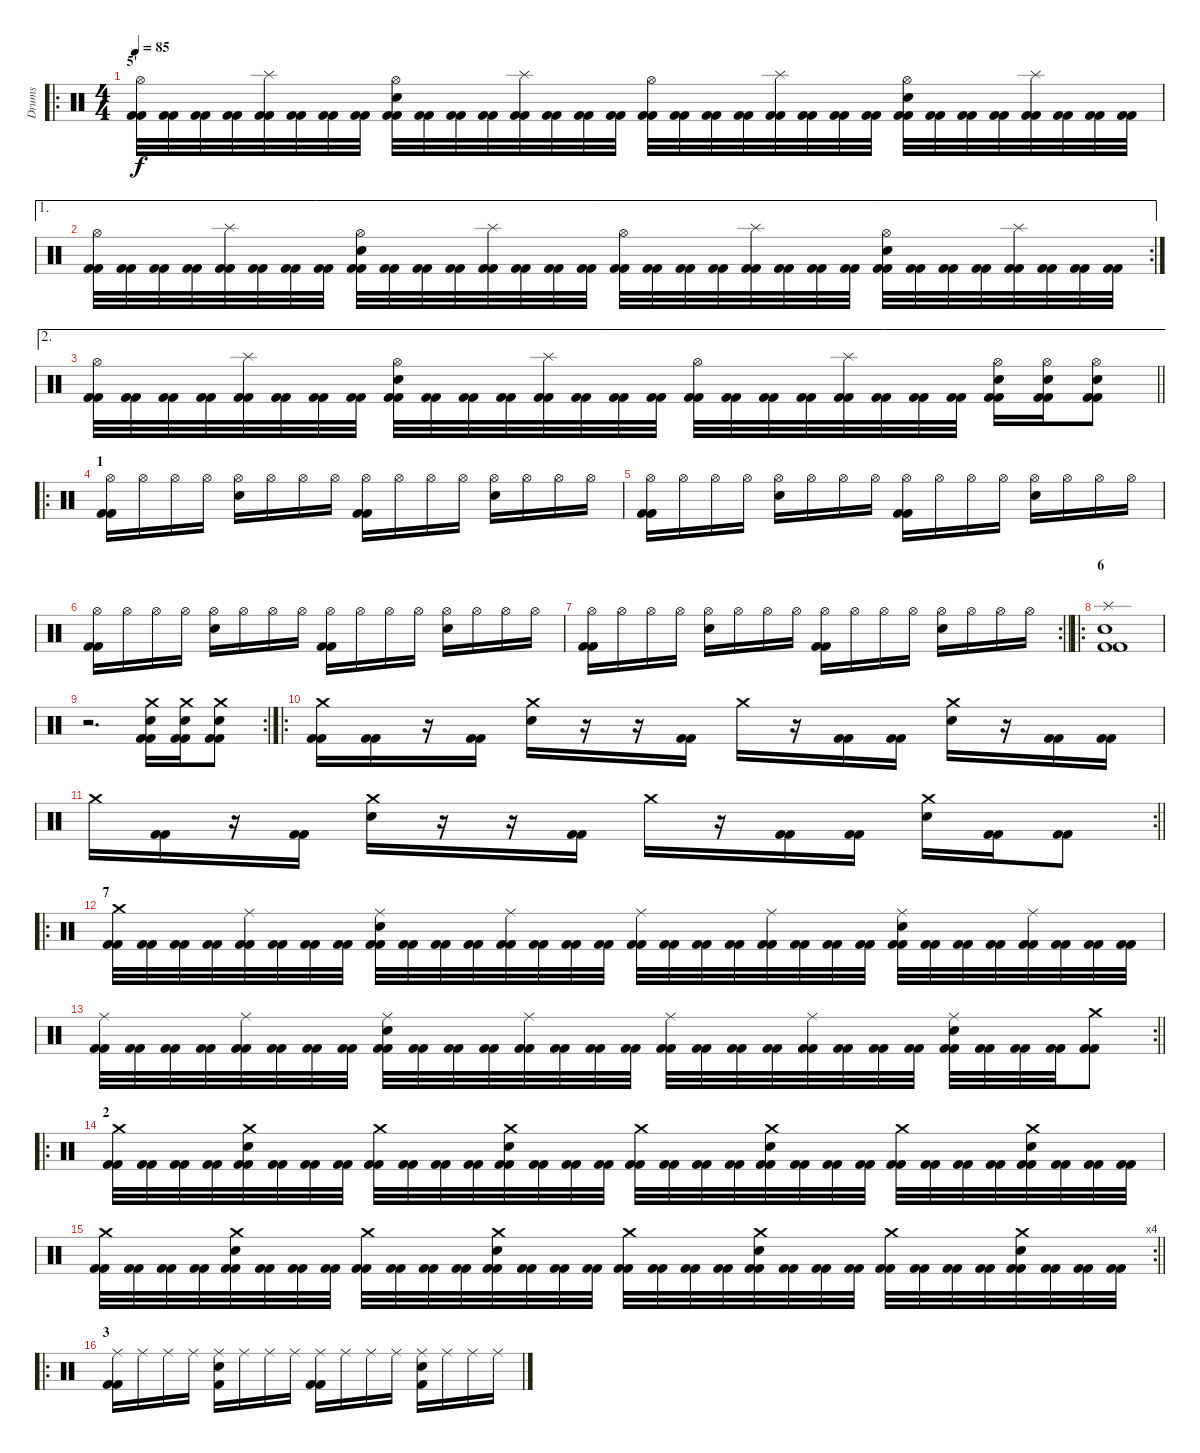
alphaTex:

\track ("Drums" "Drums") {instrument percussion}
\staff {score}
\articulation defaults
\ro
\ts (4 4)
\section ("" "5'")
\tempo 85
\clef neutral
\ks c
("Hi-Hat (open)" "Kick (hit) 2" "Kick (hit) 2").32{dy f} ("Kick (hit) 2" "Kick (hit) 2").32 ("Kick (hit) 2" "Kick (hit) 2").32 ("Kick (hit) 2" "Kick (hit) 2").32 ("Splash (hit)" "Kick (hit) 2" "Kick (hit) 2").32 ("Kick (hit) 2" "Kick (hit) 2").32 ("Kick (hit) 2" "Kick (hit) 2").32 ("Kick (hit) 2" "Kick (hit) 2").32 ("Snare (hit) 2" "Hi-Hat (open)" "Kick (hit) 2" "Kick (hit) 2").32 ("Kick (hit) 2" "Kick (hit) 2").32 ("Kick (hit) 2" "Kick (hit) 2").32 ("Kick (hit) 2" "Kick (hit) 2").32 ("Splash (hit)" "Kick (hit) 2" "Kick (hit) 2").32 ("Kick (hit) 2" "Kick (hit) 2").32 ("Kick (hit) 2" "Kick (hit) 2").32 ("Kick (hit) 2" "Kick (hit) 2").32 ("Hi-Hat (open)" "Kick (hit) 2" "Kick (hit) 2").32 ("Kick (hit) 2" "Kick (hit) 2").32 ("Kick (hit) 2" "Kick (hit) 2").32 ("Kick (hit) 2" "Kick (hit) 2").32 ("Splash (hit)" "Kick (hit) 2" "Kick (hit) 2").32 ("Kick (hit) 2" "Kick (hit) 2").32 ("Kick (hit) 2" "Kick (hit) 2").32 ("Kick (hit) 2" "Kick (hit) 2").32 ("Snare (hit) 2" "Hi-Hat (open)" "Kick (hit) 2" "Kick (hit) 2").32 ("Kick (hit) 2" "Kick (hit) 2").32 ("Kick (hit) 2" "Kick (hit) 2").32 ("Kick (hit) 2" "Kick (hit) 2").32 ("Splash (hit)" "Kick (hit) 2" "Kick (hit) 2").32 ("Kick (hit) 2" "Kick (hit) 2").32 ("Kick (hit) 2" "Kick (hit) 2").32 ("Kick (hit) 2" "Kick (hit) 2").32 |
\ae 1
\rc 2
("Hi-Hat (open)" "Kick (hit) 2" "Kick (hit) 2").32 ("Kick (hit) 2" "Kick (hit) 2").32 ("Kick (hit) 2" "Kick (hit) 2").32 ("Kick (hit) 2" "Kick (hit) 2").32 ("Splash (hit)" "Kick (hit) 2" "Kick (hit) 2").32 ("Kick (hit) 2" "Kick (hit) 2").32 ("Kick (hit) 2" "Kick (hit) 2").32 ("Kick (hit) 2" "Kick (hit) 2").32 ("Snare (hit) 2" "Hi-Hat (open)" "Kick (hit) 2" "Kick (hit) 2").32 ("Kick (hit) 2" "Kick (hit) 2").32 ("Kick (hit) 2" "Kick (hit) 2").32 ("Kick (hit) 2" "Kick (hit) 2").32 ("Splash (hit)" "Kick (hit) 2" "Kick (hit) 2").32 ("Kick (hit) 2" "Kick (hit) 2").32 ("Kick (hit) 2" "Kick (hit) 2").32 ("Kick (hit) 2" "Kick (hit) 2").32 ("Hi-Hat (open)" "Kick (hit) 2" "Kick (hit) 2").32 ("Kick (hit) 2" "Kick (hit) 2").32 ("Kick (hit) 2" "Kick (hit) 2").32 ("Kick (hit) 2" "Kick (hit) 2").32 ("Splash (hit)" "Kick (hit) 2" "Kick (hit) 2").32 ("Kick (hit) 2" "Kick (hit) 2").32 ("Kick (hit) 2" "Kick (hit) 2").32 ("Kick (hit) 2" "Kick (hit) 2").32 ("Snare (hit) 2" "Hi-Hat (open)" "Kick (hit) 2" "Kick (hit) 2").32 ("Kick (hit) 2" "Kick (hit) 2").32 ("Kick (hit) 2" "Kick (hit) 2").32 ("Kick (hit) 2" "Kick (hit) 2").32 ("Splash (hit)" "Kick (hit) 2" "Kick (hit) 2").32 ("Kick (hit) 2" "Kick (hit) 2").32 ("Kick (hit) 2" "Kick (hit) 2").32 ("Kick (hit) 2" "Kick (hit) 2").32 |
\ae 2
\barLineRight lightlight
("Hi-Hat (open)" "Kick (hit) 2" "Kick (hit) 2").32 ("Kick (hit) 2" "Kick (hit) 2").32 ("Kick (hit) 2" "Kick (hit) 2").32 ("Kick (hit) 2" "Kick (hit) 2").32 ("Splash (hit)" "Kick (hit) 2" "Kick (hit) 2").32 ("Kick (hit) 2" "Kick (hit) 2").32 ("Kick (hit) 2" "Kick (hit) 2").32 ("Kick (hit) 2" "Kick (hit) 2").32 ("Snare (hit) 2" "Hi-Hat (open)" "Kick (hit) 2" "Kick (hit) 2").32 ("Kick (hit) 2" "Kick (hit) 2").32 ("Kick (hit) 2" "Kick (hit) 2").32 ("Kick (hit) 2" "Kick (hit) 2").32 ("Splash (hit)" "Kick (hit) 2" "Kick (hit) 2").32 ("Kick (hit) 2" "Kick (hit) 2").32 ("Kick (hit) 2" "Kick (hit) 2").32 ("Kick (hit) 2" "Kick (hit) 2").32 ("Hi-Hat (open)" "Kick (hit) 2" "Kick (hit) 2").32 ("Kick (hit) 2" "Kick (hit) 2").32 ("Kick (hit) 2" "Kick (hit) 2").32 ("Kick (hit) 2" "Kick (hit) 2").32 ("Splash (hit)" "Kick (hit) 2" "Kick (hit) 2").32 ("Kick (hit) 2" "Kick (hit) 2").32 ("Kick (hit) 2" "Kick (hit) 2").32 ("Kick (hit) 2" "Kick (hit) 2").32 ("Snare (hit) 2" "Hi-Hat (open)" "Kick (hit) 2" "Kick (hit) 2").16 ("Snare (hit) 2" "Hi-Hat (open)" "Kick (hit) 2" "Kick (hit) 2").16 ("Snare (hit) 2" "Hi-Hat (open)" "Kick (hit) 2" "Kick (hit) 2").8 |
\ro
\section ("" "1")
("Kick (hit) 2" "Kick (hit) 2" "Hi-Hat (open)").16 "Hi-Hat (open)".16 "Hi-Hat (open)".16 "Hi-Hat (open)".16 ("Snare (hit) 2" "Hi-Hat (open)").16 "Hi-Hat (open)".16 "Hi-Hat (open)".16 "Hi-Hat (open)".16 ("Kick (hit) 2" "Kick (hit) 2" "Hi-Hat (open)").16 "Hi-Hat (open)".16 "Hi-Hat (open)".16 "Hi-Hat (open)".16 ("Snare (hit) 2" "Hi-Hat (open)").16 "Hi-Hat (open)".16 "Hi-Hat (open)".16 "Hi-Hat (open)".16 |
("Kick (hit) 2" "Kick (hit) 2" "Hi-Hat (open)").16 "Hi-Hat (open)".16 "Hi-Hat (open)".16 "Hi-Hat (open)".16 ("Snare (hit) 2" "Hi-Hat (open)").16 "Hi-Hat (open)".16 "Hi-Hat (open)".16 "Hi-Hat (open)".16 ("Kick (hit) 2" "Kick (hit) 2" "Hi-Hat (open)").16 "Hi-Hat (open)".16 "Hi-Hat (open)".16 "Hi-Hat (open)".16 ("Snare (hit) 2" "Hi-Hat (open)").16 "Hi-Hat (open)".16 "Hi-Hat (open)".16 "Hi-Hat (open)".16 |
("Kick (hit) 2" "Kick (hit) 2" "Hi-Hat (open)").16 "Hi-Hat (open)".16 "Hi-Hat (open)".16 "Hi-Hat (open)".16 ("Snare (hit) 2" "Hi-Hat (open)").16 "Hi-Hat (open)".16 "Hi-Hat (open)".16 "Hi-Hat (open)".16 ("Kick (hit) 2" "Kick (hit) 2" "Hi-Hat (open)").16 "Hi-Hat (open)".16 "Hi-Hat (open)".16 "Hi-Hat (open)".16 ("Snare (hit) 2" "Hi-Hat (open)").16 "Hi-Hat (open)".16 "Hi-Hat (open)".16 "Hi-Hat (open)".16 |
\rc 2
\barLineRight lightlight
("Kick (hit) 2" "Kick (hit) 2" "Hi-Hat (open)").16 "Hi-Hat (open)".16 "Hi-Hat (open)".16 "Hi-Hat (open)".16 ("Snare (hit) 2" "Hi-Hat (open)").16 "Hi-Hat (open)".16 "Hi-Hat (open)".16 "Hi-Hat (open)".16 ("Kick (hit) 2" "Kick (hit) 2" "Hi-Hat (open)").16 "Hi-Hat (open)".16 "Hi-Hat (open)".16 "Hi-Hat (open)".16 ("Snare (hit) 2" "Hi-Hat (open)").16 "Hi-Hat (open)".16 "Hi-Hat (open)".16 "Hi-Hat (open)".16 |
\ro
\section ("" "6")
("Splash (hit)" "Snare (hit) 2" "Kick (hit) 2" "Kick (hit) 2").1 |
\rc 2
r.2{d} ("Crash medium (hit)" "Snare (hit) 2" "Kick (hit) 2" "Kick (hit) 2").16 ("Crash medium (hit)" "Snare (hit) 2" "Kick (hit) 2" "Kick (hit) 2").16 ("Crash medium (hit)" "Snare (hit) 2" "Kick (hit) 2" "Kick (hit) 2").8 |
\ro
("Crash medium (hit)" "Kick (hit) 2" "Kick (hit) 2").16 ("Kick (hit) 2" "Kick (hit) 2").16 r.16 ("Kick (hit) 2" "Kick (hit) 2").16 ("Crash medium (hit)" "Snare (hit) 2").16 r.16 r.16 ("Kick (hit) 2" "Kick (hit) 2").16 "Crash medium (hit)".16 r.16 ("Kick (hit) 2" "Kick (hit) 2").16 ("Kick (hit) 2" "Kick (hit) 2").16 ("Crash medium (hit)" "Snare (hit) 2").16 r.16 ("Kick (hit) 2" "Kick (hit) 2").16 ("Kick (hit) 2" "Kick (hit) 2").16 |
\rc 2
\barLineRight lightlight "Crash medium (hit)".16
("Kick (hit) 2" "Kick (hit) 2").16 r.16 ("Kick (hit) 2" "Kick (hit) 2").16 ("Crash medium (hit)" "Snare (hit) 2").16 r.16 r.16 ("Kick (hit) 2" "Kick (hit) 2").16 "Crash medium (hit)".16 r.16 ("Kick (hit) 2" "Kick (hit) 2").16 ("Kick (hit) 2" "Kick (hit) 2").16 ("Crash medium (hit)" "Snare (hit) 2").16 ("Kick (hit) 2" "Kick (hit) 2").16 ("Kick (hit) 2" "Kick (hit) 2").8 |
\ro
\section ("" "7")
("Crash medium (hit)" "Kick (hit) 2" "Kick (hit) 2").32 ("Kick (hit) 2" "Kick (hit) 2").32 ("Kick (hit) 2" "Kick (hit) 2").32 ("Kick (hit) 2" "Kick (hit) 2").32 ("Ride (middle)" "Kick (hit) 2" "Kick (hit) 2").32 ("Kick (hit) 2" "Kick (hit) 2").32 ("Kick (hit) 2" "Kick (hit) 2").32 ("Kick (hit) 2" "Kick (hit) 2").32 ("Ride (middle)" "Snare (hit) 2" "Kick (hit) 2" "Kick (hit) 2").32 ("Kick (hit) 2" "Kick (hit) 2").32 ("Kick (hit) 2" "Kick (hit) 2").32 ("Kick (hit) 2" "Kick (hit) 2").32 ("Ride (middle)" "Kick (hit) 2" "Kick (hit) 2").32 ("Kick (hit) 2" "Kick (hit) 2").32 ("Kick (hit) 2" "Kick (hit) 2").32 ("Kick (hit) 2" "Kick (hit) 2").32 ("Ride (middle)" "Kick (hit) 2" "Kick (hit) 2").32 ("Kick (hit) 2" "Kick (hit) 2").32 ("Kick (hit) 2" "Kick (hit) 2").32 ("Kick (hit) 2" "Kick (hit) 2").32 ("Ride (middle)" "Kick (hit) 2" "Kick (hit) 2").32 ("Kick (hit) 2" "Kick (hit) 2").32 ("Kick (hit) 2" "Kick (hit) 2").32 ("Kick (hit) 2" "Kick (hit) 2").32 ("Ride (middle)" "Snare (hit) 2" "Kick (hit) 2" "Kick (hit) 2").32 ("Kick (hit) 2" "Kick (hit) 2").32 ("Kick (hit) 2" "Kick (hit) 2").32 ("Kick (hit) 2" "Kick (hit) 2").32 ("Ride (middle)" "Kick (hit) 2" "Kick (hit) 2").32 ("Kick (hit) 2" "Kick (hit) 2").32 ("Kick (hit) 2" "Kick (hit) 2").32 ("Kick (hit) 2" "Kick (hit) 2").32 |
\rc 2
\barLineRight lightlight
("Ride (middle)" "Kick (hit) 2" "Kick (hit) 2").32 ("Kick (hit) 2" "Kick (hit) 2").32 ("Kick (hit) 2" "Kick (hit) 2").32 ("Kick (hit) 2" "Kick (hit) 2").32 ("Ride (middle)" "Kick (hit) 2" "Kick (hit) 2").32 ("Kick (hit) 2" "Kick (hit) 2").32 ("Kick (hit) 2" "Kick (hit) 2").32 ("Kick (hit) 2" "Kick (hit) 2").32 ("Ride (middle)" "Snare (hit) 2" "Kick (hit) 2" "Kick (hit) 2").32 ("Kick (hit) 2" "Kick (hit) 2").32 ("Kick (hit) 2" "Kick (hit) 2").32 ("Kick (hit) 2" "Kick (hit) 2").32 ("Ride (middle)" "Kick (hit) 2" "Kick (hit) 2").32 ("Kick (hit) 2" "Kick (hit) 2").32 ("Kick (hit) 2" "Kick (hit) 2").32 ("Kick (hit) 2" "Kick (hit) 2").32 ("Ride (middle)" "Kick (hit) 2" "Kick (hit) 2").32 ("Kick (hit) 2" "Kick (hit) 2").32 ("Kick (hit) 2" "Kick (hit) 2").32 ("Kick (hit) 2" "Kick (hit) 2").32 ("Ride (middle)" "Kick (hit) 2" "Kick (hit) 2").32 ("Kick (hit) 2" "Kick (hit) 2").32 ("Kick (hit) 2" "Kick (hit) 2").32 ("Kick (hit) 2" "Kick (hit) 2").32 ("Ride (middle)" "Snare (hit) 2" "Kick (hit) 2" "Kick (hit) 2").32 ("Kick (hit) 2" "Kick (hit) 2").32 ("Kick (hit) 2" "Kick (hit) 2").32 ("Kick (hit) 2" "Kick (hit) 2").32 ("Crash medium (hit)" "Kick (hit) 2" "Kick (hit) 2").8 |
\ro
\section ("" "2")
("Crash medium (hit)" "Kick (hit) 2" "Kick (hit) 2").32 ("Kick (hit) 2" "Kick (hit) 2").32 ("Kick (hit) 2" "Kick (hit) 2").32 ("Kick (hit) 2" "Kick (hit) 2").32 ("Crash medium (hit)" "Snare (hit) 2" "Kick (hit) 2" "Kick (hit) 2").32 ("Kick (hit) 2" "Kick (hit) 2").32 ("Kick (hit) 2" "Kick (hit) 2").32 ("Kick (hit) 2" "Kick (hit) 2").32 ("Crash medium (hit)" "Kick (hit) 2" "Kick (hit) 2").32 ("Kick (hit) 2" "Kick (hit) 2").32 ("Kick (hit) 2" "Kick (hit) 2").32 ("Kick (hit) 2" "Kick (hit) 2").32 ("Crash medium (hit)" "Snare (hit) 2" "Kick (hit) 2" "Kick (hit) 2").32 ("Kick (hit) 2" "Kick (hit) 2").32 ("Kick (hit) 2" "Kick (hit) 2").32 ("Kick (hit) 2" "Kick (hit) 2").32 ("Crash medium (hit)" "Kick (hit) 2" "Kick (hit) 2").32 ("Kick (hit) 2" "Kick (hit) 2").32 ("Kick (hit) 2" "Kick (hit) 2").32 ("Kick (hit) 2" "Kick (hit) 2").32 ("Crash medium (hit)" "Snare (hit) 2" "Kick (hit) 2" "Kick (hit) 2").32 ("Kick (hit) 2" "Kick (hit) 2").32 ("Kick (hit) 2" "Kick (hit) 2").32 ("Kick (hit) 2" "Kick (hit) 2").32 ("Crash medium (hit)" "Kick (hit) 2" "Kick (hit) 2").32 ("Kick (hit) 2" "Kick (hit) 2").32 ("Kick (hit) 2" "Kick (hit) 2").32 ("Kick (hit) 2" "Kick (hit) 2").32 ("Crash medium (hit)" "Snare (hit) 2" "Kick (hit) 2" "Kick (hit) 2").32 ("Kick (hit) 2" "Kick (hit) 2").32 ("Kick (hit) 2" "Kick (hit) 2").32 ("Kick (hit) 2" "Kick (hit) 2").32 |
\rc 4
\barLineRight lightlight
("Crash medium (hit)" "Kick (hit) 2" "Kick (hit) 2").32 ("Kick (hit) 2" "Kick (hit) 2").32 ("Kick (hit) 2" "Kick (hit) 2").32 ("Kick (hit) 2" "Kick (hit) 2").32 ("Crash medium (hit)" "Snare (hit) 2" "Kick (hit) 2" "Kick (hit) 2").32 ("Kick (hit) 2" "Kick (hit) 2").32 ("Kick (hit) 2" "Kick (hit) 2").32 ("Kick (hit) 2" "Kick (hit) 2").32 ("Crash medium (hit)" "Kick (hit) 2" "Kick (hit) 2").32 ("Kick (hit) 2" "Kick (hit) 2").32 ("Kick (hit) 2" "Kick (hit) 2").32 ("Kick (hit) 2" "Kick (hit) 2").32 ("Crash medium (hit)" "Snare (hit) 2" "Kick (hit) 2" "Kick (hit) 2").32 ("Kick (hit) 2" "Kick (hit) 2").32 ("Kick (hit) 2" "Kick (hit) 2").32 ("Kick (hit) 2" "Kick (hit) 2").32 ("Crash medium (hit)" "Kick (hit) 2" "Kick (hit) 2").32 ("Kick (hit) 2" "Kick (hit) 2").32 ("Kick (hit) 2" "Kick (hit) 2").32 ("Kick (hit) 2" "Kick (hit) 2").32 ("Crash medium (hit)" "Snare (hit) 2" "Kick (hit) 2" "Kick (hit) 2").32 ("Kick (hit) 2" "Kick (hit) 2").32 ("Kick (hit) 2" "Kick (hit) 2").32 ("Kick (hit) 2" "Kick (hit) 2").32 ("Crash medium (hit)" "Kick (hit) 2" "Kick (hit) 2").32 ("Kick (hit) 2" "Kick (hit) 2").32 ("Kick (hit) 2" "Kick (hit) 2").32 ("Kick (hit) 2" "Kick (hit) 2").32 ("Crash medium (hit)" "Snare (hit) 2" "Kick (hit) 2" "Kick (hit) 2").32 ("Kick (hit) 2" "Kick (hit) 2").32 ("Kick (hit) 2" "Kick (hit) 2").32 ("Kick (hit) 2" "Kick (hit) 2").32 |
\ro
\section ("" "3")
("Kick (hit) 2" "Kick (hit) 2" "Ride (middle)").16 "Ride (middle)".16 "Ride (middle)".16 "Ride (middle)".16 ("Snare (hit) 2" "Kick (hit) 2" "Ride (middle)").16 "Ride (middle)".16 "Ride (middle)".16 "Ride (middle)".16 ("Kick (hit) 2" "Kick (hit) 2" "Ride (middle)").16 "Ride (middle)".16 "Ride (middle)".16 "Ride (middle)".16 ("Snare (hit) 2" "Kick (hit) 2" "Ride (middle)").16 "Ride (middle)".16 "Ride (middle)".16 "Ride (middle)".16
